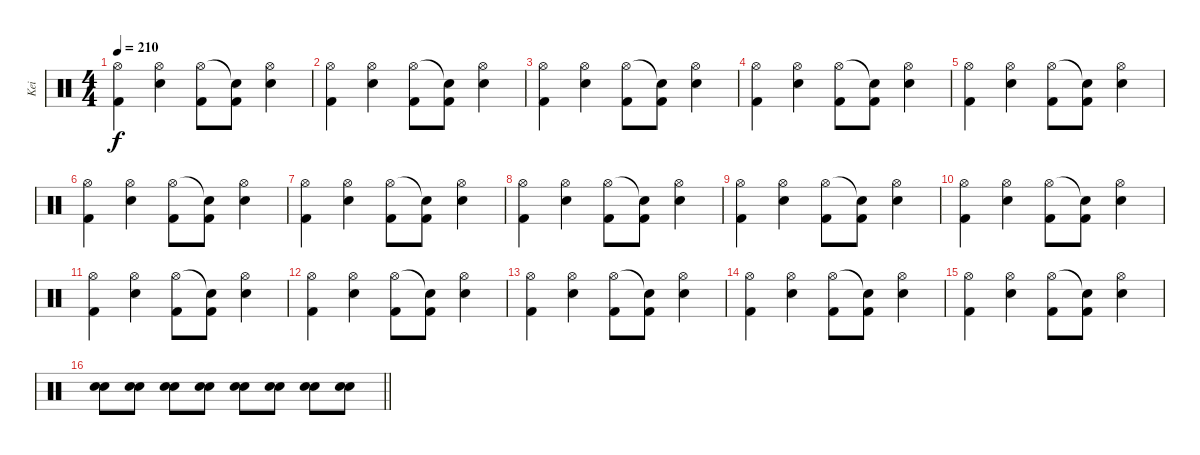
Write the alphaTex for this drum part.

\track ("Kei" "Kei") {instrument percussion}
\staff {score}
\articulation defaults
\ts (4 4)
\tempo 210
\clef neutral
\ks c
("Hi-Hat (open)" "Kick (hit) 2").4{dy f} ("Hi-Hat (open)" "Electric Snare (hit)").4 ("Hi-Hat (open)" "Kick (hit) 2").8 ("Snare (hit)"{t} "Kick (hit) 2").8 ("Hi-Hat (open)" "Electric Snare (hit)").4 |
("Hi-Hat (open)" "Kick (hit) 2").4 ("Hi-Hat (open)" "Electric Snare (hit)").4 ("Hi-Hat (open)" "Kick (hit) 2").8 ("Snare (hit)"{t} "Kick (hit) 2").8 ("Hi-Hat (open)" "Electric Snare (hit)").4 |
("Hi-Hat (open)" "Kick (hit) 2").4 ("Hi-Hat (open)" "Electric Snare (hit)").4 ("Hi-Hat (open)" "Kick (hit) 2").8 ("Snare (hit)"{t} "Kick (hit) 2").8 ("Hi-Hat (open)" "Electric Snare (hit)").4 |
("Hi-Hat (open)" "Kick (hit) 2").4 ("Hi-Hat (open)" "Electric Snare (hit)").4 ("Hi-Hat (open)" "Kick (hit) 2").8 ("Snare (hit)"{t} "Kick (hit) 2").8 ("Hi-Hat (open)" "Electric Snare (hit)").4 |
("Hi-Hat (open)" "Kick (hit) 2").4 ("Hi-Hat (open)" "Electric Snare (hit)").4 ("Hi-Hat (open)" "Kick (hit) 2").8 ("Snare (hit)"{t} "Kick (hit) 2").8 ("Hi-Hat (open)" "Electric Snare (hit)").4 |
("Hi-Hat (open)" "Kick (hit) 2").4 ("Hi-Hat (open)" "Electric Snare (hit)").4 ("Hi-Hat (open)" "Kick (hit) 2").8 ("Snare (hit)"{t} "Kick (hit) 2").8 ("Hi-Hat (open)" "Electric Snare (hit)").4 |
("Hi-Hat (open)" "Kick (hit) 2").4 ("Hi-Hat (open)" "Electric Snare (hit)").4 ("Hi-Hat (open)" "Kick (hit) 2").8 ("Snare (hit)"{t} "Kick (hit) 2").8 ("Hi-Hat (open)" "Electric Snare (hit)").4 |
("Hi-Hat (open)" "Kick (hit) 2").4 ("Hi-Hat (open)" "Electric Snare (hit)").4 ("Hi-Hat (open)" "Kick (hit) 2").8 ("Snare (hit)"{t} "Kick (hit) 2").8 ("Hi-Hat (open)" "Electric Snare (hit)").4 |
("Hi-Hat (open)" "Kick (hit) 2").4 ("Hi-Hat (open)" "Electric Snare (hit)").4 ("Hi-Hat (open)" "Kick (hit) 2").8 ("Snare (hit)"{t} "Kick (hit) 2").8 ("Hi-Hat (open)" "Electric Snare (hit)").4 |
("Hi-Hat (open)" "Kick (hit) 2").4 ("Hi-Hat (open)" "Electric Snare (hit)").4 ("Hi-Hat (open)" "Kick (hit) 2").8 ("Snare (hit)"{t} "Kick (hit) 2").8 ("Hi-Hat (open)" "Electric Snare (hit)").4 |
("Hi-Hat (open)" "Kick (hit) 2").4 ("Hi-Hat (open)" "Electric Snare (hit)").4 ("Hi-Hat (open)" "Kick (hit) 2").8 ("Snare (hit)"{t} "Kick (hit) 2").8 ("Hi-Hat (open)" "Electric Snare (hit)").4 |
("Hi-Hat (open)" "Kick (hit) 2").4 ("Hi-Hat (open)" "Electric Snare (hit)").4 ("Hi-Hat (open)" "Kick (hit) 2").8 ("Snare (hit)"{t} "Kick (hit) 2").8 ("Hi-Hat (open)" "Electric Snare (hit)").4 |
("Hi-Hat (open)" "Kick (hit) 2").4 ("Hi-Hat (open)" "Electric Snare (hit)").4 ("Hi-Hat (open)" "Kick (hit) 2").8 ("Snare (hit)"{t} "Kick (hit) 2").8 ("Hi-Hat (open)" "Electric Snare (hit)").4 |
("Hi-Hat (open)" "Kick (hit) 2").4 ("Hi-Hat (open)" "Electric Snare (hit)").4 ("Hi-Hat (open)" "Kick (hit) 2").8 ("Snare (hit)"{t} "Kick (hit) 2").8 ("Hi-Hat (open)" "Electric Snare (hit)").4 |
("Hi-Hat (open)" "Kick (hit) 2").4 ("Hi-Hat (open)" "Electric Snare (hit)").4 ("Hi-Hat (open)" "Kick (hit) 2").8 ("Snare (hit)"{t} "Kick (hit) 2").8 ("Hi-Hat (open)" "Electric Snare (hit)").4 |
\barLineRight lightlight
("Electric Snare (hit)" "Electric Snare (hit)").8 ("Electric Snare (hit)" "Electric Snare (hit)").8 ("Electric Snare (hit)" "Electric Snare (hit)").8 ("Electric Snare (hit)" "Electric Snare (hit)").8 ("Electric Snare (hit)" "Electric Snare (hit)").8 ("Electric Snare (hit)" "Electric Snare (hit)").8 ("Electric Snare (hit)" "Electric Snare (hit)").8 ("Electric Snare (hit)" "Electric Snare (hit)").8
